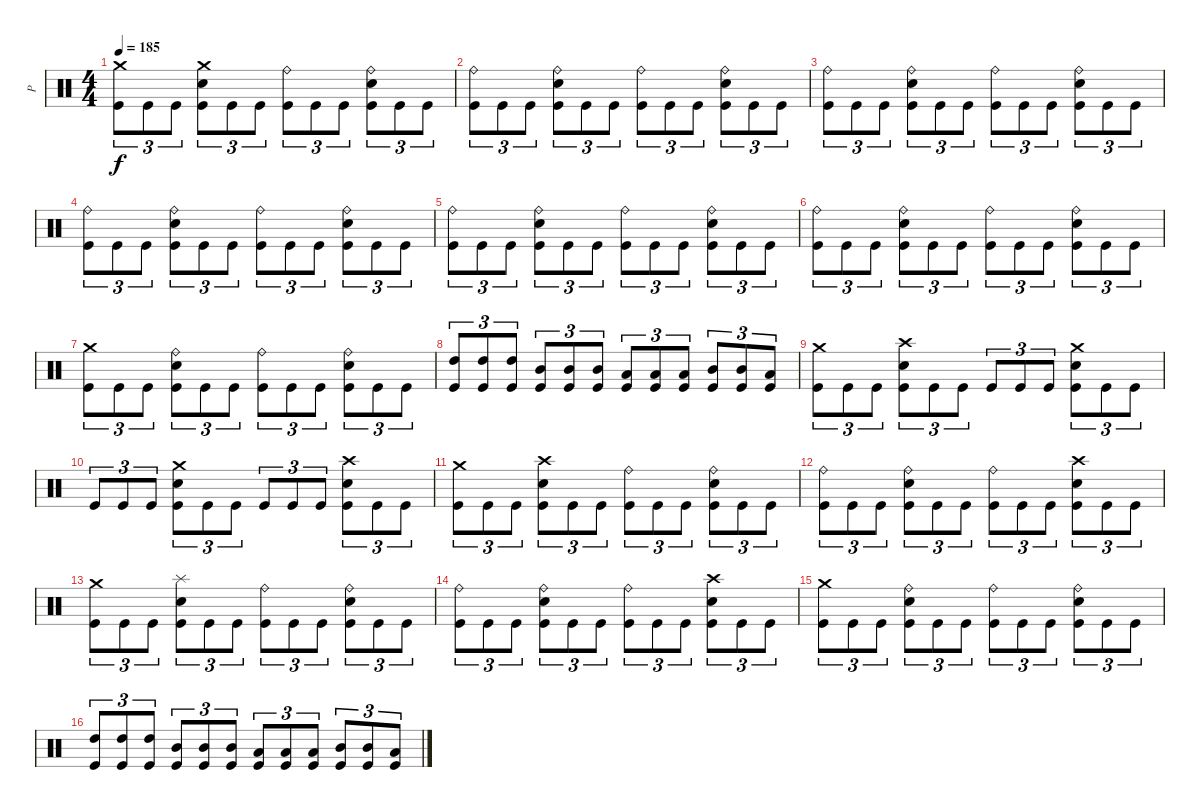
\track ("P" "P") {instrument percussion}
\staff {score}
\articulation defaults
\ts (4 4)
\tempo 185
\clef neutral
\ks c
("Crash medium (hit)" "Kick (hit)").8{tu (3 2) dy f} "Kick (hit)".8{tu (3 2)} "Kick (hit)".8{tu (3 2)} ("Crash medium (hit)" "Electric Snare (hit)" "Kick (hit)").8{tu (3 2)} "Kick (hit)".8{tu (3 2)} "Kick (hit)".8{tu (3 2)} ("Ride (bell)" "Kick (hit)").8{tu (3 2)} "Kick (hit)".8{tu (3 2)} "Kick (hit)".8{tu (3 2)} ("Ride (bell)" "Electric Snare (hit)" "Kick (hit)").8{tu (3 2)} "Kick (hit)".8{tu (3 2)} "Kick (hit)".8{tu (3 2)} |
("Ride (bell)" "Kick (hit)").8{tu (3 2)} "Kick (hit)".8{tu (3 2)} "Kick (hit)".8{tu (3 2)} ("Ride (bell)" "Electric Snare (hit)" "Kick (hit)").8{tu (3 2)} "Kick (hit)".8{tu (3 2)} "Kick (hit)".8{tu (3 2)} ("Ride (bell)" "Kick (hit)").8{tu (3 2)} "Kick (hit)".8{tu (3 2)} "Kick (hit)".8{tu (3 2)} ("Ride (bell)" "Electric Snare (hit)" "Kick (hit)").8{tu (3 2)} "Kick (hit)".8{tu (3 2)} "Kick (hit)".8{tu (3 2)} |
("Ride (bell)" "Kick (hit)").8{tu (3 2)} "Kick (hit)".8{tu (3 2)} "Kick (hit)".8{tu (3 2)} ("Ride (bell)" "Electric Snare (hit)" "Kick (hit)").8{tu (3 2)} "Kick (hit)".8{tu (3 2)} "Kick (hit)".8{tu (3 2)} ("Ride (bell)" "Kick (hit)").8{tu (3 2)} "Kick (hit)".8{tu (3 2)} "Kick (hit)".8{tu (3 2)} ("Ride (bell)" "Electric Snare (hit)" "Kick (hit)").8{tu (3 2)} "Kick (hit)".8{tu (3 2)} "Kick (hit)".8{tu (3 2)} |
("Ride (bell)" "Kick (hit)").8{tu (3 2)} "Kick (hit)".8{tu (3 2)} "Kick (hit)".8{tu (3 2)} ("Ride (bell)" "Electric Snare (hit)" "Kick (hit)").8{tu (3 2)} "Kick (hit)".8{tu (3 2)} "Kick (hit)".8{tu (3 2)} ("Ride (bell)" "Kick (hit)").8{tu (3 2)} "Kick (hit)".8{tu (3 2)} "Kick (hit)".8{tu (3 2)} ("Ride (bell)" "Electric Snare (hit)" "Kick (hit)").8{tu (3 2)} "Kick (hit)".8{tu (3 2)} "Kick (hit)".8{tu (3 2)} |
("Ride (bell)" "Kick (hit)").8{tu (3 2)} "Kick (hit)".8{tu (3 2)} "Kick (hit)".8{tu (3 2)} ("Ride (bell)" "Electric Snare (hit)" "Kick (hit)").8{tu (3 2)} "Kick (hit)".8{tu (3 2)} "Kick (hit)".8{tu (3 2)} ("Ride (bell)" "Kick (hit)").8{tu (3 2)} "Kick (hit)".8{tu (3 2)} "Kick (hit)".8{tu (3 2)} ("Ride (bell)" "Electric Snare (hit)" "Kick (hit)").8{tu (3 2)} "Kick (hit)".8{tu (3 2)} "Kick (hit)".8{tu (3 2)} |
("Ride (bell)" "Kick (hit)").8{tu (3 2)} "Kick (hit)".8{tu (3 2)} "Kick (hit)".8{tu (3 2)} ("Ride (bell)" "Electric Snare (hit)" "Kick (hit)").8{tu (3 2)} "Kick (hit)".8{tu (3 2)} "Kick (hit)".8{tu (3 2)} ("Ride (bell)" "Kick (hit)").8{tu (3 2)} "Kick (hit)".8{tu (3 2)} "Kick (hit)".8{tu (3 2)} ("Ride (bell)" "Electric Snare (hit)" "Kick (hit)").8{tu (3 2)} "Kick (hit)".8{tu (3 2)} "Kick (hit)".8{tu (3 2)} |
("Crash medium (hit)" "Kick (hit)").8{tu (3 2)} "Kick (hit)".8{tu (3 2)} "Kick (hit)".8{tu (3 2)} ("Ride (bell)" "Electric Snare (hit)" "Kick (hit)").8{tu (3 2)} "Kick (hit)".8{tu (3 2)} "Kick (hit)".8{tu (3 2)} ("Ride (bell)" "Kick (hit)").8{tu (3 2)} "Kick (hit)".8{tu (3 2)} "Kick (hit)".8{tu (3 2)} ("Ride (bell)" "Electric Snare (hit)" "Kick (hit)").8{tu (3 2)} "Kick (hit)".8{tu (3 2)} "Kick (hit)".8{tu (3 2)} |
("High Tom (hit)" "Kick (hit)").8{tu (3 2)} ("High Tom (hit)" "Kick (hit)").8{tu (3 2)} ("High Tom (hit)" "Kick (hit)").8{tu (3 2)} ("Mid Tom (hit)" "Kick (hit)").8{tu (3 2)} ("Mid Tom (hit)" "Kick (hit)").8{tu (3 2)} ("Mid Tom (hit)" "Kick (hit)").8{tu (3 2)} ("Low Tom (hit)" "Kick (hit)").8{tu (3 2)} ("Low Tom (hit)" "Kick (hit)").8{tu (3 2)} ("Low Tom (hit)" "Kick (hit)").8{tu (3 2)} ("Mid Tom (hit)" "Kick (hit)").8{tu (3 2)} ("Mid Tom (hit)" "Kick (hit)").8{tu (3 2)} ("Low Tom (hit)" "Kick (hit)").8{tu (3 2)} |
("Crash medium (hit)" "Kick (hit)").8{tu (3 2)} "Kick (hit)".8{tu (3 2)} "Kick (hit)".8{tu (3 2)} ("Crash high (hit)" "Electric Snare (hit)" "Kick (hit)").8{tu (3 2)} "Kick (hit)".8{tu (3 2)} "Kick (hit)".8{tu (3 2)} "Kick (hit)".8{tu (3 2)} "Kick (hit)".8{tu (3 2)} "Kick (hit)".8{tu (3 2)} ("Crash medium (hit)" "Electric Snare (hit)" "Kick (hit)").8{tu (3 2)} "Kick (hit)".8{tu (3 2)} "Kick (hit)".8{tu (3 2)} |
"Kick (hit)".8{tu (3 2)} "Kick (hit)".8{tu (3 2)} "Kick (hit)".8{tu (3 2)} ("Crash medium (hit)" "Electric Snare (hit)" "Kick (hit)").8{tu (3 2)} "Kick (hit)".8{tu (3 2)} "Kick (hit)".8{tu (3 2)} "Kick (hit)".8{tu (3 2)} "Kick (hit)".8{tu (3 2)} "Kick (hit)".8{tu (3 2)} ("Crash high (hit)" "Electric Snare (hit)" "Kick (hit)").8{tu (3 2)} "Kick (hit)".8{tu (3 2)} "Kick (hit)".8{tu (3 2)} |
("Crash medium (hit)" "Kick (hit)").8{tu (3 2)} "Kick (hit)".8{tu (3 2)} "Kick (hit)".8{tu (3 2)} ("Crash high (hit)" "Electric Snare (hit)" "Kick (hit)").8{tu (3 2)} "Kick (hit)".8{tu (3 2)} "Kick (hit)".8{tu (3 2)} ("Ride (bell)" "Kick (hit)").8{tu (3 2)} "Kick (hit)".8{tu (3 2)} "Kick (hit)".8{tu (3 2)} ("Ride (bell)" "Electric Snare (hit)" "Kick (hit)").8{tu (3 2)} "Kick (hit)".8{tu (3 2)} "Kick (hit)".8{tu (3 2)} |
("Ride (bell)" "Kick (hit)").8{tu (3 2)} "Kick (hit)".8{tu (3 2)} "Kick (hit)".8{tu (3 2)} ("Ride (bell)" "Electric Snare (hit)" "Kick (hit)").8{tu (3 2)} "Kick (hit)".8{tu (3 2)} "Kick (hit)".8{tu (3 2)} ("Ride (bell)" "Kick (hit)").8{tu (3 2)} "Kick (hit)".8{tu (3 2)} "Kick (hit)".8{tu (3 2)} ("Crash high (hit)" "Electric Snare (hit)" "Kick (hit)").8{tu (3 2)} "Kick (hit)".8{tu (3 2)} "Kick (hit)".8{tu (3 2)} |
("Crash medium (hit)" "Kick (hit)").8{tu (3 2)} "Kick (hit)".8{tu (3 2)} "Kick (hit)".8{tu (3 2)} ("Splash (hit)" "Electric Snare (hit)" "Kick (hit)").8{tu (3 2)} "Kick (hit)".8{tu (3 2)} "Kick (hit)".8{tu (3 2)} ("Ride (bell)" "Kick (hit)").8{tu (3 2)} "Kick (hit)".8{tu (3 2)} "Kick (hit)".8{tu (3 2)} ("Ride (bell)" "Electric Snare (hit)" "Kick (hit)").8{tu (3 2)} "Kick (hit)".8{tu (3 2)} "Kick (hit)".8{tu (3 2)} |
("Ride (bell)" "Kick (hit)").8{tu (3 2)} "Kick (hit)".8{tu (3 2)} "Kick (hit)".8{tu (3 2)} ("Ride (bell)" "Electric Snare (hit)" "Kick (hit)").8{tu (3 2)} "Kick (hit)".8{tu (3 2)} "Kick (hit)".8{tu (3 2)} ("Ride (bell)" "Kick (hit)").8{tu (3 2)} "Kick (hit)".8{tu (3 2)} "Kick (hit)".8{tu (3 2)} ("Crash high (hit)" "Electric Snare (hit)" "Kick (hit)").8{tu (3 2)} "Kick (hit)".8{tu (3 2)} "Kick (hit)".8{tu (3 2)} |
("Crash medium (hit)" "Kick (hit)").8{tu (3 2)} "Kick (hit)".8{tu (3 2)} "Kick (hit)".8{tu (3 2)} ("Ride (bell)" "Electric Snare (hit)" "Kick (hit)").8{tu (3 2)} "Kick (hit)".8{tu (3 2)} "Kick (hit)".8{tu (3 2)} ("Ride (bell)" "Kick (hit)").8{tu (3 2)} "Kick (hit)".8{tu (3 2)} "Kick (hit)".8{tu (3 2)} ("Ride (bell)" "Electric Snare (hit)" "Kick (hit)").8{tu (3 2)} "Kick (hit)".8{tu (3 2)} "Kick (hit)".8{tu (3 2)} |
("High Tom (hit)" "Kick (hit)").8{tu (3 2)} ("High Tom (hit)" "Kick (hit)").8{tu (3 2)} ("High Tom (hit)" "Kick (hit)").8{tu (3 2)} ("Mid Tom (hit)" "Kick (hit)").8{tu (3 2)} ("Mid Tom (hit)" "Kick (hit)").8{tu (3 2)} ("Mid Tom (hit)" "Kick (hit)").8{tu (3 2)} ("Low Tom (hit)" "Kick (hit)").8{tu (3 2)} ("Low Tom (hit)" "Kick (hit)").8{tu (3 2)} ("Low Tom (hit)" "Kick (hit)").8{tu (3 2)} ("Mid Tom (hit)" "Kick (hit)").8{tu (3 2)} ("Mid Tom (hit)" "Kick (hit)").8{tu (3 2)} ("Low Tom (hit)" "Kick (hit)").8{tu (3 2)}
